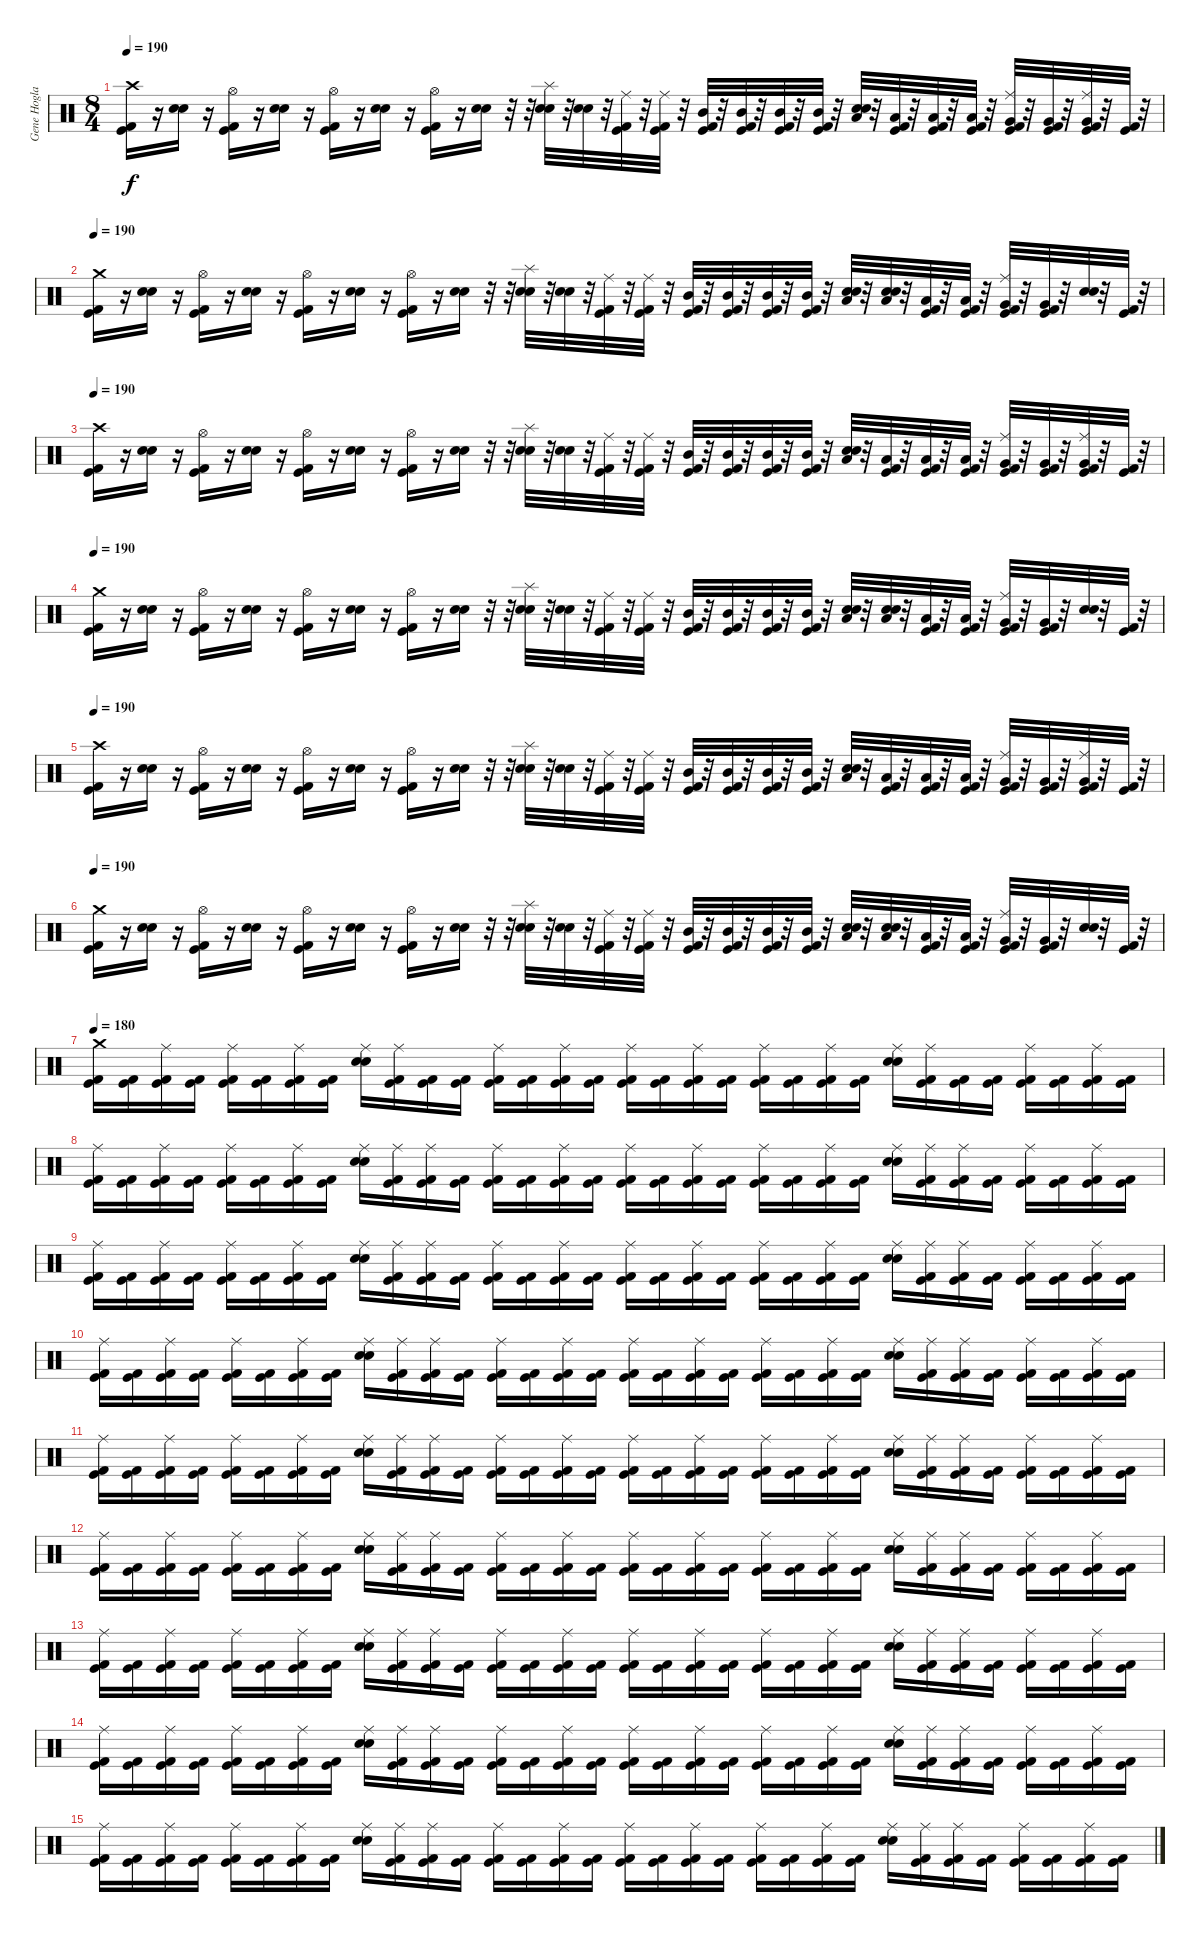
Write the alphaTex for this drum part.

\track ("Gene Hoglan" "Gene Hogla") {instrument percussion}
\staff {score}
\articulation defaults
\ts (8 4)
\tempo 190
\clef neutral
\ks c
("Crash high (hit)" "Kick (hit) 2" "Kick (hit)").16{dy f} r.16 ("Snare (hit) 2" "Electric Snare (hit)").16 r.16 ("Hi-Hat (open)" "Kick (hit) 2" "Kick (hit)").16 r.16 ("Snare (hit) 2" "Electric Snare (hit)").16 r.16 ("Hi-Hat (open)" "Kick (hit) 2" "Kick (hit)").16 r.16 ("Snare (hit) 2" "Electric Snare (hit)").16 r.16 ("Hi-Hat (open)" "Kick (hit) 2" "Kick (hit)").16 r.16 ("Snare (hit) 2" "Electric Snare (hit)").16 r.32 r.32 ("Splash (hit)" "Snare (hit) 2" "Electric Snare (hit)").32 r.32 ("Snare (hit) 2" "Electric Snare (hit)").32 r.32 ("Ride (middle)" "Kick (hit) 2" "Kick (hit)").32 r.32 ("Ride (middle)" "Kick (hit) 2" "Kick (hit)").32 r.32 ("Mid Tom (hit)" "Kick (hit) 2" "Kick (hit)").32 r.32 ("Mid Tom (hit)" "Kick (hit) 2" "Kick (hit)").32 r.32 ("Mid Tom (hit)" "Kick (hit) 2" "Kick (hit)").32 r.32 ("Mid Tom (hit)" "Kick (hit) 2" "Kick (hit)").32 r.32 ("Low Tom (hit)" "Snare (hit) 2" "Electric Snare (hit)").32 r.32 ("Low Tom (hit)" "Kick (hit) 2" "Kick (hit)").32 r.32 ("Low Tom (hit)" "Kick (hit) 2" "Kick (hit)").32 r.32 ("Low Tom (hit)" "Kick (hit) 2" "Kick (hit)").32 r.32 ("Ride (middle)" "Very Low Tom (hit)" "Kick (hit) 2" "Kick (hit)").32 r.32 ("Very Low Tom (hit)" "Kick (hit) 2" "Kick (hit)").32 r.32 ("Ride (middle)" "Very Low Tom (hit)" "Kick (hit) 2" "Kick (hit)").32 r.32 ("Kick (hit) 2" "Kick (hit)").32 r.32 |
\tempo 190
("Crash medium (hit)" "Kick (hit) 2" "Kick (hit)").16 r.16 ("Snare (hit) 2" "Electric Snare (hit)").16 r.16 ("Hi-Hat (open)" "Kick (hit) 2" "Kick (hit)").16 r.16 ("Snare (hit) 2" "Electric Snare (hit)").16 r.16 ("Hi-Hat (open)" "Kick (hit) 2" "Kick (hit)").16 r.16 ("Snare (hit) 2" "Electric Snare (hit)").16 r.16 ("Hi-Hat (open)" "Kick (hit) 2" "Kick (hit)").16 r.16 ("Snare (hit) 2" "Electric Snare (hit)").16 r.32 r.32 ("Splash (hit)" "Snare (hit) 2" "Electric Snare (hit)").32 r.32 ("Snare (hit) 2" "Electric Snare (hit)").32 r.32 ("Ride (middle)" "Kick (hit) 2" "Kick (hit)").32 r.32 ("Ride (middle)" "Kick (hit) 2" "Kick (hit)").32 r.32 ("Mid Tom (hit)" "Kick (hit) 2" "Kick (hit)").32 r.32 ("Mid Tom (hit)" "Kick (hit) 2" "Kick (hit)").32 r.32 ("Mid Tom (hit)" "Kick (hit) 2" "Kick (hit)").32 r.32 ("Mid Tom (hit)" "Kick (hit) 2" "Kick (hit)").32 r.32 ("Low Tom (hit)" "Snare (hit) 2" "Electric Snare (hit)").32 r.32 ("Low Tom (hit)" "Snare (hit) 2" "Electric Snare (hit)").32 r.32 ("Low Tom (hit)" "Kick (hit) 2" "Kick (hit)").32 r.32 ("Low Tom (hit)" "Kick (hit) 2" "Kick (hit)").32 r.32 ("Ride (middle)" "Very Low Tom (hit)" "Kick (hit) 2" "Kick (hit)").32 r.32 ("Very Low Tom (hit)" "Kick (hit) 2" "Kick (hit)").32 r.32 ("Snare (hit) 2" "Electric Snare (hit)").32 r.32 ("Kick (hit) 2" "Kick (hit)").32 r.32 |
\tempo 190
("Crash high (hit)" "Kick (hit) 2" "Kick (hit)").16 r.16 ("Snare (hit) 2" "Electric Snare (hit)").16 r.16 ("Hi-Hat (open)" "Kick (hit) 2" "Kick (hit)").16 r.16 ("Snare (hit) 2" "Electric Snare (hit)").16 r.16 ("Hi-Hat (open)" "Kick (hit) 2" "Kick (hit)").16 r.16 ("Snare (hit) 2" "Electric Snare (hit)").16 r.16 ("Hi-Hat (open)" "Kick (hit) 2" "Kick (hit)").16 r.16 ("Snare (hit) 2" "Electric Snare (hit)").16 r.32 r.32 ("Splash (hit)" "Snare (hit) 2" "Electric Snare (hit)").32 r.32 ("Snare (hit) 2" "Electric Snare (hit)").32 r.32 ("Ride (middle)" "Kick (hit) 2" "Kick (hit)").32 r.32 ("Ride (middle)" "Kick (hit) 2" "Kick (hit)").32 r.32 ("Mid Tom (hit)" "Kick (hit) 2" "Kick (hit)").32 r.32 ("Mid Tom (hit)" "Kick (hit) 2" "Kick (hit)").32 r.32 ("Mid Tom (hit)" "Kick (hit) 2" "Kick (hit)").32 r.32 ("Mid Tom (hit)" "Kick (hit) 2" "Kick (hit)").32 r.32 ("Low Tom (hit)" "Snare (hit) 2" "Electric Snare (hit)").32 r.32 ("Low Tom (hit)" "Kick (hit) 2" "Kick (hit)").32 r.32 ("Low Tom (hit)" "Kick (hit) 2" "Kick (hit)").32 r.32 ("Low Tom (hit)" "Kick (hit) 2" "Kick (hit)").32 r.32 ("Ride (middle)" "Very Low Tom (hit)" "Kick (hit) 2" "Kick (hit)").32 r.32 ("Very Low Tom (hit)" "Kick (hit) 2" "Kick (hit)").32 r.32 ("Ride (middle)" "Very Low Tom (hit)" "Kick (hit) 2" "Kick (hit)").32 r.32 ("Kick (hit) 2" "Kick (hit)").32 r.32 |
\tempo 190
("Crash medium (hit)" "Kick (hit) 2" "Kick (hit)").16 r.16 ("Snare (hit) 2" "Electric Snare (hit)").16 r.16 ("Hi-Hat (open)" "Kick (hit) 2" "Kick (hit)").16 r.16 ("Snare (hit) 2" "Electric Snare (hit)").16 r.16 ("Hi-Hat (open)" "Kick (hit) 2" "Kick (hit)").16 r.16 ("Snare (hit) 2" "Electric Snare (hit)").16 r.16 ("Hi-Hat (open)" "Kick (hit) 2" "Kick (hit)").16 r.16 ("Snare (hit) 2" "Electric Snare (hit)").16 r.32 r.32 ("Splash (hit)" "Snare (hit) 2" "Electric Snare (hit)").32 r.32 ("Snare (hit) 2" "Electric Snare (hit)").32 r.32 ("Ride (middle)" "Kick (hit) 2" "Kick (hit)").32 r.32 ("Ride (middle)" "Kick (hit) 2" "Kick (hit)").32 r.32 ("Mid Tom (hit)" "Kick (hit) 2" "Kick (hit)").32 r.32 ("Mid Tom (hit)" "Kick (hit) 2" "Kick (hit)").32 r.32 ("Mid Tom (hit)" "Kick (hit) 2" "Kick (hit)").32 r.32 ("Mid Tom (hit)" "Kick (hit) 2" "Kick (hit)").32 r.32 ("Low Tom (hit)" "Snare (hit) 2" "Electric Snare (hit)").32 r.32 ("Low Tom (hit)" "Snare (hit) 2" "Electric Snare (hit)").32 r.32 ("Low Tom (hit)" "Kick (hit) 2" "Kick (hit)").32 r.32 ("Low Tom (hit)" "Kick (hit) 2" "Kick (hit)").32 r.32 ("Ride (middle)" "Very Low Tom (hit)" "Kick (hit) 2" "Kick (hit)").32 r.32 ("Very Low Tom (hit)" "Kick (hit) 2" "Kick (hit)").32 r.32 ("Snare (hit) 2" "Electric Snare (hit)").32 r.32 ("Kick (hit) 2" "Kick (hit)").32 r.32 |
\tempo 190
("Crash high (hit)" "Kick (hit) 2" "Kick (hit)").16 r.16 ("Snare (hit) 2" "Electric Snare (hit)").16 r.16 ("Hi-Hat (open)" "Kick (hit) 2" "Kick (hit)").16 r.16 ("Snare (hit) 2" "Electric Snare (hit)").16 r.16 ("Hi-Hat (open)" "Kick (hit) 2" "Kick (hit)").16 r.16 ("Snare (hit) 2" "Electric Snare (hit)").16 r.16 ("Hi-Hat (open)" "Kick (hit) 2" "Kick (hit)").16 r.16 ("Snare (hit) 2" "Electric Snare (hit)").16 r.32 r.32 ("Splash (hit)" "Snare (hit) 2" "Electric Snare (hit)").32 r.32 ("Snare (hit) 2" "Electric Snare (hit)").32 r.32 ("Ride (middle)" "Kick (hit) 2" "Kick (hit)").32 r.32 ("Ride (middle)" "Kick (hit) 2" "Kick (hit)").32 r.32 ("Mid Tom (hit)" "Kick (hit) 2" "Kick (hit)").32 r.32 ("Mid Tom (hit)" "Kick (hit) 2" "Kick (hit)").32 r.32 ("Mid Tom (hit)" "Kick (hit) 2" "Kick (hit)").32 r.32 ("Mid Tom (hit)" "Kick (hit) 2" "Kick (hit)").32 r.32 ("Low Tom (hit)" "Snare (hit) 2" "Electric Snare (hit)").32 r.32 ("Low Tom (hit)" "Kick (hit) 2" "Kick (hit)").32 r.32 ("Low Tom (hit)" "Kick (hit) 2" "Kick (hit)").32 r.32 ("Low Tom (hit)" "Kick (hit) 2" "Kick (hit)").32 r.32 ("Ride (middle)" "Very Low Tom (hit)" "Kick (hit) 2" "Kick (hit)").32 r.32 ("Very Low Tom (hit)" "Kick (hit) 2" "Kick (hit)").32 r.32 ("Ride (middle)" "Very Low Tom (hit)" "Kick (hit) 2" "Kick (hit)").32 r.32 ("Kick (hit) 2" "Kick (hit)").32 r.32 |
\tempo 190
("Crash medium (hit)" "Kick (hit) 2" "Kick (hit)").16 r.16 ("Snare (hit) 2" "Electric Snare (hit)").16 r.16 ("Hi-Hat (open)" "Kick (hit) 2" "Kick (hit)").16 r.16 ("Snare (hit) 2" "Electric Snare (hit)").16 r.16 ("Hi-Hat (open)" "Kick (hit) 2" "Kick (hit)").16 r.16 ("Snare (hit) 2" "Electric Snare (hit)").16 r.16 ("Hi-Hat (open)" "Kick (hit) 2" "Kick (hit)").16 r.16 ("Snare (hit) 2" "Electric Snare (hit)").16 r.32 r.32 ("Splash (hit)" "Snare (hit) 2" "Electric Snare (hit)").32 r.32 ("Snare (hit) 2" "Electric Snare (hit)").32 r.32 ("Ride (middle)" "Kick (hit) 2" "Kick (hit)").32 r.32 ("Ride (middle)" "Kick (hit) 2" "Kick (hit)").32 r.32 ("Mid Tom (hit)" "Kick (hit) 2" "Kick (hit)").32 r.32 ("Mid Tom (hit)" "Kick (hit) 2" "Kick (hit)").32 r.32 ("Mid Tom (hit)" "Kick (hit) 2" "Kick (hit)").32 r.32 ("Mid Tom (hit)" "Kick (hit) 2" "Kick (hit)").32 r.32 ("Low Tom (hit)" "Snare (hit) 2" "Electric Snare (hit)").32 r.32 ("Low Tom (hit)" "Snare (hit) 2" "Electric Snare (hit)").32 r.32 ("Low Tom (hit)" "Kick (hit) 2" "Kick (hit)").32 r.32 ("Low Tom (hit)" "Kick (hit) 2" "Kick (hit)").32 r.32 ("Ride (middle)" "Very Low Tom (hit)" "Kick (hit) 2" "Kick (hit)").32 r.32 ("Very Low Tom (hit)" "Kick (hit) 2" "Kick (hit)").32 r.32 ("Snare (hit) 2" "Electric Snare (hit)").32 r.32 ("Kick (hit) 2" "Kick (hit)").32 r.32 |
\tempo 180
("Crash medium (hit)" "Kick (hit)" "Kick (hit) 2").16 ("Kick (hit)" "Kick (hit) 2").16 ("Ride (middle)" "Kick (hit)" "Kick (hit) 2").16 ("Kick (hit)" "Kick (hit) 2").16 ("Ride (middle)" "Kick (hit)" "Kick (hit) 2").16 ("Kick (hit)" "Kick (hit) 2").16 ("Ride (middle)" "Kick (hit)" "Kick (hit) 2").16 ("Kick (hit)" "Kick (hit) 2").16 ("Ride (middle)" "Snare (hit) 2" "Electric Snare (hit)").16 ("Ride (middle)" "Kick (hit)" "Kick (hit) 2").16 ("Kick (hit)" "Kick (hit) 2").16 ("Kick (hit)" "Kick (hit) 2").16 ("Ride (middle)" "Kick (hit)" "Kick (hit) 2").16 ("Kick (hit)" "Kick (hit) 2").16 ("Ride (middle)" "Kick (hit)" "Kick (hit) 2").16 ("Kick (hit)" "Kick (hit) 2").16 ("Ride (middle)" "Kick (hit)" "Kick (hit) 2").16 ("Kick (hit)" "Kick (hit) 2").16 ("Ride (middle)" "Kick (hit)" "Kick (hit) 2").16 ("Kick (hit)" "Kick (hit) 2").16 ("Ride (middle)" "Kick (hit)" "Kick (hit) 2").16 ("Kick (hit)" "Kick (hit) 2").16 ("Ride (middle)" "Kick (hit)" "Kick (hit) 2").16 ("Kick (hit)" "Kick (hit) 2").16 ("Ride (middle)" "Snare (hit) 2" "Electric Snare (hit)").16 ("Ride (middle)" "Kick (hit)" "Kick (hit) 2").16 ("Kick (hit)" "Kick (hit) 2").16 ("Kick (hit)" "Kick (hit) 2").16 ("Ride (middle)" "Kick (hit)" "Kick (hit) 2").16 ("Kick (hit)" "Kick (hit) 2").16 ("Ride (middle)" "Kick (hit)" "Kick (hit) 2").16 ("Kick (hit)" "Kick (hit) 2").16 |
("Ride (middle)" "Kick (hit)" "Kick (hit) 2").16 ("Kick (hit)" "Kick (hit) 2").16 ("Ride (middle)" "Kick (hit)" "Kick (hit) 2").16 ("Kick (hit)" "Kick (hit) 2").16 ("Ride (middle)" "Kick (hit)" "Kick (hit) 2").16 ("Kick (hit)" "Kick (hit) 2").16 ("Ride (middle)" "Kick (hit)" "Kick (hit) 2").16 ("Kick (hit)" "Kick (hit) 2").16 ("Ride (middle)" "Snare (hit) 2" "Electric Snare (hit)").16 ("Ride (middle)" "Kick (hit)" "Kick (hit) 2").16 ("Ride (middle)" "Kick (hit)" "Kick (hit) 2").16 ("Kick (hit)" "Kick (hit) 2").16 ("Ride (middle)" "Kick (hit)" "Kick (hit) 2").16 ("Kick (hit)" "Kick (hit) 2").16 ("Ride (middle)" "Kick (hit)" "Kick (hit) 2").16 ("Kick (hit)" "Kick (hit) 2").16 ("Ride (middle)" "Kick (hit)" "Kick (hit) 2").16 ("Kick (hit)" "Kick (hit) 2").16 ("Ride (middle)" "Kick (hit)" "Kick (hit) 2").16 ("Kick (hit)" "Kick (hit) 2").16 ("Ride (middle)" "Kick (hit)" "Kick (hit) 2").16 ("Kick (hit)" "Kick (hit) 2").16 ("Ride (middle)" "Kick (hit)" "Kick (hit) 2").16 ("Kick (hit)" "Kick (hit) 2").16 ("Ride (middle)" "Snare (hit) 2" "Electric Snare (hit)").16 ("Ride (middle)" "Kick (hit)" "Kick (hit) 2").16 ("Ride (middle)" "Kick (hit)" "Kick (hit) 2").16 ("Kick (hit)" "Kick (hit) 2").16 ("Ride (middle)" "Kick (hit)" "Kick (hit) 2").16 ("Kick (hit)" "Kick (hit) 2").16 ("Ride (middle)" "Kick (hit)" "Kick (hit) 2").16 ("Kick (hit)" "Kick (hit) 2").16 |
("Ride (middle)" "Kick (hit)" "Kick (hit) 2").16 ("Kick (hit)" "Kick (hit) 2").16 ("Ride (middle)" "Kick (hit)" "Kick (hit) 2").16 ("Kick (hit)" "Kick (hit) 2").16 ("Ride (middle)" "Kick (hit)" "Kick (hit) 2").16 ("Kick (hit)" "Kick (hit) 2").16 ("Ride (middle)" "Kick (hit)" "Kick (hit) 2").16 ("Kick (hit)" "Kick (hit) 2").16 ("Ride (middle)" "Snare (hit) 2" "Electric Snare (hit)").16 ("Ride (middle)" "Kick (hit)" "Kick (hit) 2").16 ("Ride (middle)" "Kick (hit)" "Kick (hit) 2").16 ("Kick (hit)" "Kick (hit) 2").16 ("Ride (middle)" "Kick (hit)" "Kick (hit) 2").16 ("Kick (hit)" "Kick (hit) 2").16 ("Ride (middle)" "Kick (hit)" "Kick (hit) 2").16 ("Kick (hit)" "Kick (hit) 2").16 ("Ride (middle)" "Kick (hit)" "Kick (hit) 2").16 ("Kick (hit)" "Kick (hit) 2").16 ("Ride (middle)" "Kick (hit)" "Kick (hit) 2").16 ("Kick (hit)" "Kick (hit) 2").16 ("Ride (middle)" "Kick (hit)" "Kick (hit) 2").16 ("Kick (hit)" "Kick (hit) 2").16 ("Ride (middle)" "Kick (hit)" "Kick (hit) 2").16 ("Kick (hit)" "Kick (hit) 2").16 ("Ride (middle)" "Snare (hit) 2" "Electric Snare (hit)").16 ("Ride (middle)" "Kick (hit)" "Kick (hit) 2").16 ("Ride (middle)" "Kick (hit)" "Kick (hit) 2").16 ("Kick (hit)" "Kick (hit) 2").16 ("Ride (middle)" "Kick (hit)" "Kick (hit) 2").16 ("Kick (hit)" "Kick (hit) 2").16 ("Ride (middle)" "Kick (hit)" "Kick (hit) 2").16 ("Kick (hit)" "Kick (hit) 2").16 |
("Ride (middle)" "Kick (hit)" "Kick (hit) 2").16 ("Kick (hit)" "Kick (hit) 2").16 ("Ride (middle)" "Kick (hit)" "Kick (hit) 2").16 ("Kick (hit)" "Kick (hit) 2").16 ("Ride (middle)" "Kick (hit)" "Kick (hit) 2").16 ("Kick (hit)" "Kick (hit) 2").16 ("Ride (middle)" "Kick (hit)" "Kick (hit) 2").16 ("Kick (hit)" "Kick (hit) 2").16 ("Ride (middle)" "Snare (hit) 2" "Electric Snare (hit)").16 ("Ride (middle)" "Kick (hit)" "Kick (hit) 2").16 ("Ride (middle)" "Kick (hit)" "Kick (hit) 2").16 ("Kick (hit)" "Kick (hit) 2").16 ("Ride (middle)" "Kick (hit)" "Kick (hit) 2").16 ("Kick (hit)" "Kick (hit) 2").16 ("Ride (middle)" "Kick (hit)" "Kick (hit) 2").16 ("Kick (hit)" "Kick (hit) 2").16 ("Ride (middle)" "Kick (hit)" "Kick (hit) 2").16 ("Kick (hit)" "Kick (hit) 2").16 ("Ride (middle)" "Kick (hit)" "Kick (hit) 2").16 ("Kick (hit)" "Kick (hit) 2").16 ("Ride (middle)" "Kick (hit)" "Kick (hit) 2").16 ("Kick (hit)" "Kick (hit) 2").16 ("Ride (middle)" "Kick (hit)" "Kick (hit) 2").16 ("Kick (hit)" "Kick (hit) 2").16 ("Ride (middle)" "Snare (hit) 2" "Electric Snare (hit)").16 ("Ride (middle)" "Kick (hit)" "Kick (hit) 2").16 ("Ride (middle)" "Kick (hit)" "Kick (hit) 2").16 ("Kick (hit)" "Kick (hit) 2").16 ("Ride (middle)" "Kick (hit)" "Kick (hit) 2").16 ("Kick (hit)" "Kick (hit) 2").16 ("Ride (middle)" "Kick (hit)" "Kick (hit) 2").16 ("Kick (hit)" "Kick (hit) 2").16 |
("Ride (middle)" "Kick (hit)" "Kick (hit) 2").16 ("Kick (hit)" "Kick (hit) 2").16 ("Ride (middle)" "Kick (hit)" "Kick (hit) 2").16 ("Kick (hit)" "Kick (hit) 2").16 ("Ride (middle)" "Kick (hit)" "Kick (hit) 2").16 ("Kick (hit)" "Kick (hit) 2").16 ("Ride (middle)" "Kick (hit)" "Kick (hit) 2").16 ("Kick (hit)" "Kick (hit) 2").16 ("Ride (middle)" "Snare (hit) 2" "Electric Snare (hit)").16 ("Ride (middle)" "Kick (hit)" "Kick (hit) 2").16 ("Ride (middle)" "Kick (hit)" "Kick (hit) 2").16 ("Kick (hit)" "Kick (hit) 2").16 ("Ride (middle)" "Kick (hit)" "Kick (hit) 2").16 ("Kick (hit)" "Kick (hit) 2").16 ("Ride (middle)" "Kick (hit)" "Kick (hit) 2").16 ("Kick (hit)" "Kick (hit) 2").16 ("Ride (middle)" "Kick (hit)" "Kick (hit) 2").16 ("Kick (hit)" "Kick (hit) 2").16 ("Ride (middle)" "Kick (hit)" "Kick (hit) 2").16 ("Kick (hit)" "Kick (hit) 2").16 ("Ride (middle)" "Kick (hit)" "Kick (hit) 2").16 ("Kick (hit)" "Kick (hit) 2").16 ("Ride (middle)" "Kick (hit)" "Kick (hit) 2").16 ("Kick (hit)" "Kick (hit) 2").16 ("Ride (middle)" "Snare (hit) 2" "Electric Snare (hit)").16 ("Ride (middle)" "Kick (hit)" "Kick (hit) 2").16 ("Ride (middle)" "Kick (hit)" "Kick (hit) 2").16 ("Kick (hit)" "Kick (hit) 2").16 ("Ride (middle)" "Kick (hit)" "Kick (hit) 2").16 ("Kick (hit)" "Kick (hit) 2").16 ("Ride (middle)" "Kick (hit)" "Kick (hit) 2").16 ("Kick (hit)" "Kick (hit) 2").16 |
("Ride (middle)" "Kick (hit)" "Kick (hit) 2").16 ("Kick (hit)" "Kick (hit) 2").16 ("Ride (middle)" "Kick (hit)" "Kick (hit) 2").16 ("Kick (hit)" "Kick (hit) 2").16 ("Ride (middle)" "Kick (hit)" "Kick (hit) 2").16 ("Kick (hit)" "Kick (hit) 2").16 ("Ride (middle)" "Kick (hit)" "Kick (hit) 2").16 ("Kick (hit)" "Kick (hit) 2").16 ("Ride (middle)" "Snare (hit) 2" "Electric Snare (hit)").16 ("Ride (middle)" "Kick (hit)" "Kick (hit) 2").16 ("Ride (middle)" "Kick (hit)" "Kick (hit) 2").16 ("Kick (hit)" "Kick (hit) 2").16 ("Ride (middle)" "Kick (hit)" "Kick (hit) 2").16 ("Kick (hit)" "Kick (hit) 2").16 ("Ride (middle)" "Kick (hit)" "Kick (hit) 2").16 ("Kick (hit)" "Kick (hit) 2").16 ("Ride (middle)" "Kick (hit)" "Kick (hit) 2").16 ("Kick (hit)" "Kick (hit) 2").16 ("Ride (middle)" "Kick (hit)" "Kick (hit) 2").16 ("Kick (hit)" "Kick (hit) 2").16 ("Ride (middle)" "Kick (hit)" "Kick (hit) 2").16 ("Kick (hit)" "Kick (hit) 2").16 ("Ride (middle)" "Kick (hit)" "Kick (hit) 2").16 ("Kick (hit)" "Kick (hit) 2").16 ("Ride (middle)" "Snare (hit) 2" "Electric Snare (hit)").16 ("Ride (middle)" "Kick (hit)" "Kick (hit) 2").16 ("Ride (middle)" "Kick (hit)" "Kick (hit) 2").16 ("Kick (hit)" "Kick (hit) 2").16 ("Ride (middle)" "Kick (hit)" "Kick (hit) 2").16 ("Kick (hit)" "Kick (hit) 2").16 ("Ride (middle)" "Kick (hit)" "Kick (hit) 2").16 ("Kick (hit)" "Kick (hit) 2").16 |
("Ride (middle)" "Kick (hit)" "Kick (hit) 2").16 ("Kick (hit)" "Kick (hit) 2").16 ("Ride (middle)" "Kick (hit)" "Kick (hit) 2").16 ("Kick (hit)" "Kick (hit) 2").16 ("Ride (middle)" "Kick (hit)" "Kick (hit) 2").16 ("Kick (hit)" "Kick (hit) 2").16 ("Ride (middle)" "Kick (hit)" "Kick (hit) 2").16 ("Kick (hit)" "Kick (hit) 2").16 ("Ride (middle)" "Snare (hit) 2" "Electric Snare (hit)").16 ("Ride (middle)" "Kick (hit)" "Kick (hit) 2").16 ("Ride (middle)" "Kick (hit)" "Kick (hit) 2").16 ("Kick (hit)" "Kick (hit) 2").16 ("Ride (middle)" "Kick (hit)" "Kick (hit) 2").16 ("Kick (hit)" "Kick (hit) 2").16 ("Ride (middle)" "Kick (hit)" "Kick (hit) 2").16 ("Kick (hit)" "Kick (hit) 2").16 ("Ride (middle)" "Kick (hit)" "Kick (hit) 2").16 ("Kick (hit)" "Kick (hit) 2").16 ("Ride (middle)" "Kick (hit)" "Kick (hit) 2").16 ("Kick (hit)" "Kick (hit) 2").16 ("Ride (middle)" "Kick (hit)" "Kick (hit) 2").16 ("Kick (hit)" "Kick (hit) 2").16 ("Ride (middle)" "Kick (hit)" "Kick (hit) 2").16 ("Kick (hit)" "Kick (hit) 2").16 ("Ride (middle)" "Snare (hit) 2" "Electric Snare (hit)").16 ("Ride (middle)" "Kick (hit)" "Kick (hit) 2").16 ("Ride (middle)" "Kick (hit)" "Kick (hit) 2").16 ("Kick (hit)" "Kick (hit) 2").16 ("Ride (middle)" "Kick (hit)" "Kick (hit) 2").16 ("Kick (hit)" "Kick (hit) 2").16 ("Ride (middle)" "Kick (hit)" "Kick (hit) 2").16 ("Kick (hit)" "Kick (hit) 2").16 |
("Ride (middle)" "Kick (hit)" "Kick (hit) 2").16 ("Kick (hit)" "Kick (hit) 2").16 ("Ride (middle)" "Kick (hit)" "Kick (hit) 2").16 ("Kick (hit)" "Kick (hit) 2").16 ("Ride (middle)" "Kick (hit)" "Kick (hit) 2").16 ("Kick (hit)" "Kick (hit) 2").16 ("Ride (middle)" "Kick (hit)" "Kick (hit) 2").16 ("Kick (hit)" "Kick (hit) 2").16 ("Ride (middle)" "Snare (hit) 2" "Electric Snare (hit)").16 ("Ride (middle)" "Kick (hit)" "Kick (hit) 2").16 ("Ride (middle)" "Kick (hit)" "Kick (hit) 2").16 ("Kick (hit)" "Kick (hit) 2").16 ("Ride (middle)" "Kick (hit)" "Kick (hit) 2").16 ("Kick (hit)" "Kick (hit) 2").16 ("Ride (middle)" "Kick (hit)" "Kick (hit) 2").16 ("Kick (hit)" "Kick (hit) 2").16 ("Ride (middle)" "Kick (hit)" "Kick (hit) 2").16 ("Kick (hit)" "Kick (hit) 2").16 ("Ride (middle)" "Kick (hit)" "Kick (hit) 2").16 ("Kick (hit)" "Kick (hit) 2").16 ("Ride (middle)" "Kick (hit)" "Kick (hit) 2").16 ("Kick (hit)" "Kick (hit) 2").16 ("Ride (middle)" "Kick (hit)" "Kick (hit) 2").16 ("Kick (hit)" "Kick (hit) 2").16 ("Ride (middle)" "Snare (hit) 2" "Electric Snare (hit)").16 ("Ride (middle)" "Kick (hit)" "Kick (hit) 2").16 ("Ride (middle)" "Kick (hit)" "Kick (hit) 2").16 ("Kick (hit)" "Kick (hit) 2").16 ("Ride (middle)" "Kick (hit)" "Kick (hit) 2").16 ("Kick (hit)" "Kick (hit) 2").16 ("Ride (middle)" "Kick (hit)" "Kick (hit) 2").16 ("Kick (hit)" "Kick (hit) 2").16 |
("Ride (middle)" "Kick (hit)" "Kick (hit) 2").16 ("Kick (hit)" "Kick (hit) 2").16 ("Ride (middle)" "Kick (hit)" "Kick (hit) 2").16 ("Kick (hit)" "Kick (hit) 2").16 ("Ride (middle)" "Kick (hit)" "Kick (hit) 2").16 ("Kick (hit)" "Kick (hit) 2").16 ("Ride (middle)" "Kick (hit)" "Kick (hit) 2").16 ("Kick (hit)" "Kick (hit) 2").16 ("Ride (middle)" "Snare (hit) 2" "Electric Snare (hit)").16 ("Ride (middle)" "Kick (hit)" "Kick (hit) 2").16 ("Ride (middle)" "Kick (hit)" "Kick (hit) 2").16 ("Kick (hit)" "Kick (hit) 2").16 ("Ride (middle)" "Kick (hit)" "Kick (hit) 2").16 ("Kick (hit)" "Kick (hit) 2").16 ("Ride (middle)" "Kick (hit)" "Kick (hit) 2").16 ("Kick (hit)" "Kick (hit) 2").16 ("Ride (middle)" "Kick (hit)" "Kick (hit) 2").16 ("Kick (hit)" "Kick (hit) 2").16 ("Ride (middle)" "Kick (hit)" "Kick (hit) 2").16 ("Kick (hit)" "Kick (hit) 2").16 ("Ride (middle)" "Kick (hit)" "Kick (hit) 2").16 ("Kick (hit)" "Kick (hit) 2").16 ("Ride (middle)" "Kick (hit)" "Kick (hit) 2").16 ("Kick (hit)" "Kick (hit) 2").16 ("Ride (middle)" "Snare (hit) 2" "Electric Snare (hit)").16 ("Ride (middle)" "Kick (hit)" "Kick (hit) 2").16 ("Ride (middle)" "Kick (hit)" "Kick (hit) 2").16 ("Kick (hit)" "Kick (hit) 2").16 ("Ride (middle)" "Kick (hit)" "Kick (hit) 2").16 ("Kick (hit)" "Kick (hit) 2").16 ("Ride (middle)" "Kick (hit)" "Kick (hit) 2").16 ("Kick (hit)" "Kick (hit) 2").16
